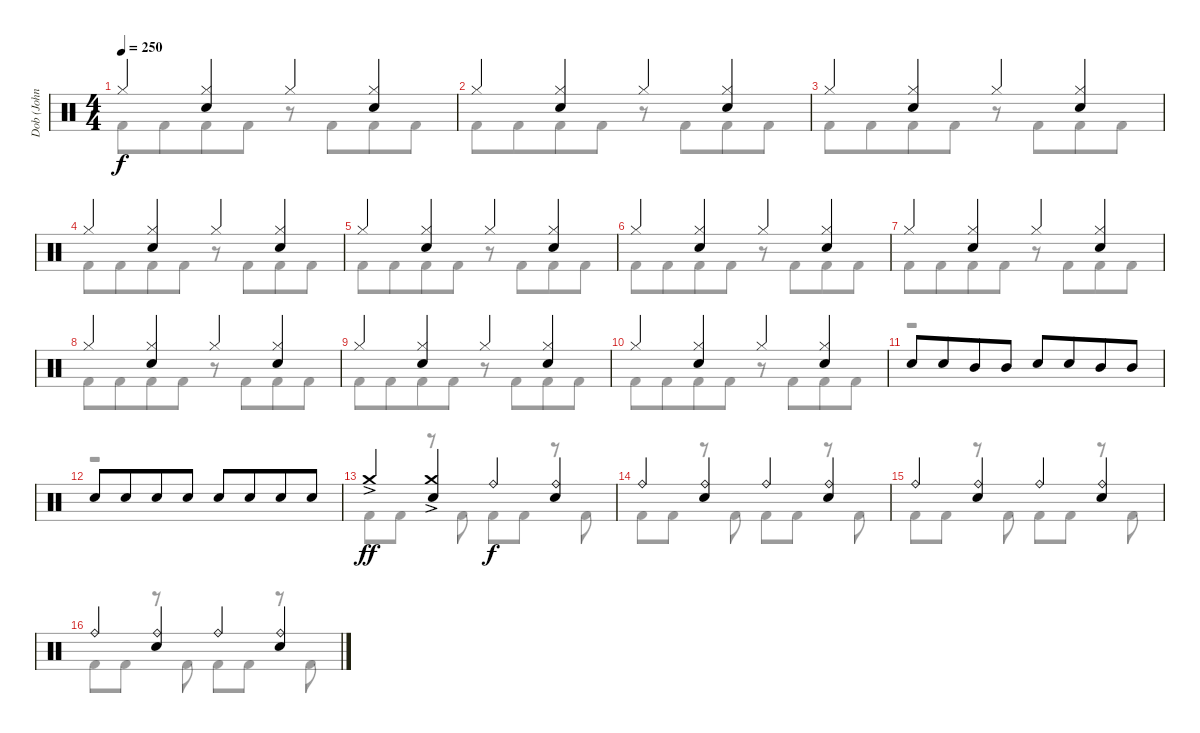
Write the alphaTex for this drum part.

\track ("Dob (John Macaluso)" "Dob (John ") {instrument percussion}
\staff {score}
\articulation defaults
\voice
\ts (4 4)
\tempo 250
\clef neutral
\ks c "Hi-Hat (closed)".4{dy f}
("Hi-Hat (closed)" "Electric Snare (hit)").4 "Hi-Hat (closed)".4 ("Hi-Hat (closed)" "Electric Snare (hit)").4 |
"Hi-Hat (closed)".4 ("Hi-Hat (closed)" "Electric Snare (hit)").4 "Hi-Hat (closed)".4 ("Hi-Hat (closed)" "Electric Snare (hit)").4 |
"Hi-Hat (closed)".4 ("Hi-Hat (closed)" "Electric Snare (hit)").4 "Hi-Hat (closed)".4 ("Hi-Hat (closed)" "Electric Snare (hit)").4 |
"Hi-Hat (closed)".4 ("Hi-Hat (closed)" "Electric Snare (hit)").4 "Hi-Hat (closed)".4 ("Hi-Hat (closed)" "Electric Snare (hit)").4 |
"Hi-Hat (closed)".4 ("Hi-Hat (closed)" "Electric Snare (hit)").4 "Hi-Hat (closed)".4 ("Hi-Hat (closed)" "Electric Snare (hit)").4 |
"Hi-Hat (closed)".4 ("Hi-Hat (closed)" "Electric Snare (hit)").4 "Hi-Hat (closed)".4 ("Hi-Hat (closed)" "Electric Snare (hit)").4 |
"Hi-Hat (closed)".4 ("Hi-Hat (closed)" "Electric Snare (hit)").4 "Hi-Hat (closed)".4 ("Hi-Hat (closed)" "Electric Snare (hit)").4 |
"Hi-Hat (closed)".4 ("Hi-Hat (closed)" "Electric Snare (hit)").4 "Hi-Hat (closed)".4 ("Hi-Hat (closed)" "Electric Snare (hit)").4 |
"Hi-Hat (closed)".4 ("Hi-Hat (closed)" "Electric Snare (hit)").4 "Hi-Hat (closed)".4 ("Hi-Hat (closed)" "Electric Snare (hit)").4 |
"Hi-Hat (closed)".4 ("Hi-Hat (closed)" "Electric Snare (hit)").4 "Hi-Hat (closed)".4 ("Hi-Hat (closed)" "Electric Snare (hit)").4 |
"Electric Snare (hit)".8 "Electric Snare (hit)".8{beam merge} "Mid Tom (hit)".8 "Mid Tom (hit)".8 "Electric Snare (hit)".8 "Electric Snare (hit)".8{beam merge} "Mid Tom (hit)".8 "Mid Tom (hit)".8 |
"Electric Snare (hit)".8 "Electric Snare (hit)".8{beam merge} "Electric Snare (hit)".8 "Electric Snare (hit)".8{beam split} "Electric Snare (hit)".8 "Electric Snare (hit)".8{beam merge} "Electric Snare (hit)".8 "Electric Snare (hit)".8 |
"Crash medium (hit)"{ac}.4{dy ff} ("Crash medium (hit)"{ac} "Electric Snare (hit)").4 "Ride (bell)".4{dy f} ("Ride (bell)" "Electric Snare (hit)").4 |
"Ride (bell)".4 ("Ride (bell)" "Electric Snare (hit)").4 "Ride (bell)".4 ("Ride (bell)" "Electric Snare (hit)").4 |
"Ride (bell)".4 ("Ride (bell)" "Electric Snare (hit)").4 "Ride (bell)".4 ("Ride (bell)" "Electric Snare (hit)").4 |
"Ride (bell)".4 ("Ride (bell)" "Electric Snare (hit)").4 "Ride (bell)".4 ("Ride (bell)" "Electric Snare (hit)").4
\voice
\clef neutral
\ottava regular
\simile none
\ks c "Kick (hit) 2".8{dy f} "Kick (hit) 2".8{beam merge} "Kick (hit) 2".8 "Kick (hit) 2".8
r.8 "Kick (hit) 2".8{beam merge} "Kick (hit) 2".8 "Kick (hit) 2".8 |
"Kick (hit) 2".8 "Kick (hit) 2".8{beam merge} "Kick (hit) 2".8 "Kick (hit) 2".8 r.8 "Kick (hit) 2".8{beam merge} "Kick (hit) 2".8 "Kick (hit) 2".8 |
"Kick (hit) 2".8 "Kick (hit) 2".8{beam merge} "Kick (hit) 2".8 "Kick (hit) 2".8 r.8 "Kick (hit) 2".8{beam merge} "Kick (hit) 2".8 "Kick (hit) 2".8 |
"Kick (hit) 2".8 "Kick (hit) 2".8{beam merge} "Kick (hit) 2".8 "Kick (hit) 2".8 r.8 "Kick (hit) 2".8{beam merge} "Kick (hit) 2".8 "Kick (hit) 2".8 |
"Kick (hit) 2".8 "Kick (hit) 2".8{beam merge} "Kick (hit) 2".8 "Kick (hit) 2".8 r.8 "Kick (hit) 2".8{beam merge} "Kick (hit) 2".8 "Kick (hit) 2".8 |
"Kick (hit) 2".8 "Kick (hit) 2".8{beam merge} "Kick (hit) 2".8 "Kick (hit) 2".8 r.8 "Kick (hit) 2".8{beam merge} "Kick (hit) 2".8 "Kick (hit) 2".8 |
"Kick (hit) 2".8 "Kick (hit) 2".8{beam merge} "Kick (hit) 2".8 "Kick (hit) 2".8 r.8 "Kick (hit) 2".8{beam merge} "Kick (hit) 2".8 "Kick (hit) 2".8 |
"Kick (hit) 2".8 "Kick (hit) 2".8{beam merge} "Kick (hit) 2".8 "Kick (hit) 2".8 r.8 "Kick (hit) 2".8{beam merge} "Kick (hit) 2".8 "Kick (hit) 2".8 |
"Kick (hit) 2".8 "Kick (hit) 2".8{beam merge} "Kick (hit) 2".8 "Kick (hit) 2".8 r.8 "Kick (hit) 2".8{beam merge} "Kick (hit) 2".8 "Kick (hit) 2".8 |
"Kick (hit) 2".8 "Kick (hit) 2".8{beam merge} "Kick (hit) 2".8 "Kick (hit) 2".8 r.8 "Kick (hit) 2".8{beam merge} "Kick (hit) 2".8 "Kick (hit) 2".8 |
r.1 |
r.1 |
"Kick (hit) 2".8 "Kick (hit) 2".8 r.8 "Kick (hit) 2".8 "Kick (hit) 2".8 "Kick (hit) 2".8 r.8 "Kick (hit) 2".8 |
"Kick (hit) 2".8 "Kick (hit) 2".8 r.8 "Kick (hit) 2".8 "Kick (hit) 2".8 "Kick (hit) 2".8 r.8 "Kick (hit) 2".8 |
"Kick (hit) 2".8 "Kick (hit) 2".8 r.8 "Kick (hit) 2".8 "Kick (hit) 2".8 "Kick (hit) 2".8 r.8 "Kick (hit) 2".8 |
"Kick (hit) 2".8 "Kick (hit) 2".8 r.8 "Kick (hit) 2".8 "Kick (hit) 2".8 "Kick (hit) 2".8 r.8 "Kick (hit) 2".8
